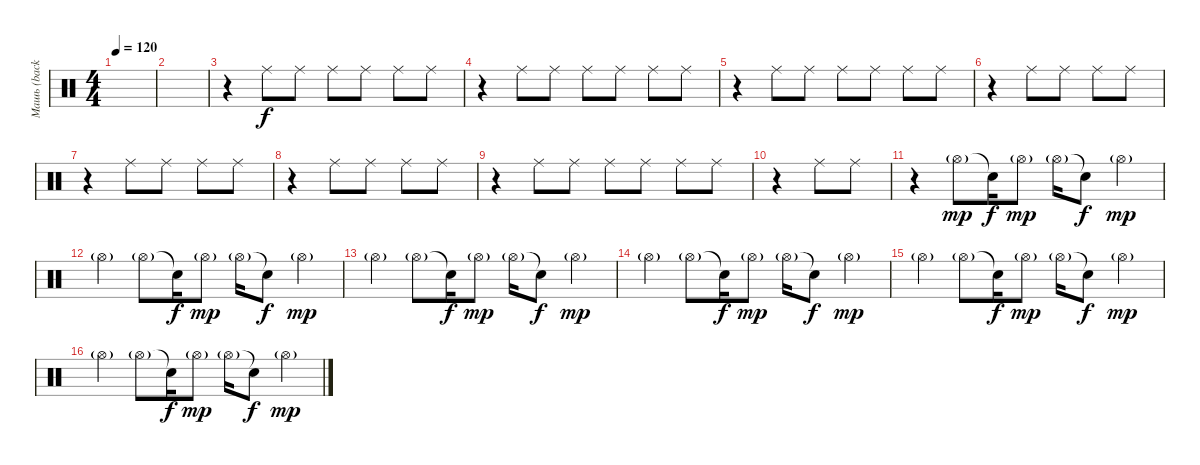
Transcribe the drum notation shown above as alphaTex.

\track ("Машь (backpercussion)" "Машь (back") {instrument percussion}
\staff {score}
\articulation defaults
\ts (4 4)
\tempo 120
\clef neutral
\ks c
|
|
r.4 "Ride (middle)".8{dy f} "Ride (middle)".8 "Ride (middle)".8 "Ride (middle)".8 "Ride (middle)".8 "Ride (middle)".8 |
r.4 "Ride (middle)".8 "Ride (middle)".8 "Ride (middle)".8 "Ride (middle)".8 "Ride (middle)".8 "Ride (middle)".8 |
r.4 "Ride (middle)".8 "Ride (middle)".8 "Ride (middle)".8 "Ride (middle)".8 "Ride (middle)".8 "Ride (middle)".8 |
r.4 "Ride (middle)".8 "Ride (middle)".8 "Ride (middle)".8 "Ride (middle)".8 |
r.4 "Ride (middle)".8 "Ride (middle)".8 "Ride (middle)".8 "Ride (middle)".8 |
r.4 "Ride (middle)".8 "Ride (middle)".8 "Ride (middle)".8 "Ride (middle)".8 |
r.4 "Ride (middle)".8 "Ride (middle)".8 "Ride (middle)".8 "Ride (middle)".8 "Ride (middle)".8 "Ride (middle)".8 |
r.4 "Ride (middle)".8 "Ride (middle)".8 |
r.4 "Hi-Hat (open)"{g}.8{dy mp} "Snare (hit)"{t}.16{dy f} "Hi-Hat (open)"{g}.8{dy mp} "Hi-Hat (open)"{g}.16 "Snare (hit)"{t}.8{dy f} "Hi-Hat (open)"{g}.4{dy mp} |
"Hi-Hat (open)"{g}.4 "Hi-Hat (open)"{g}.8 "Snare (hit)"{t}.16{dy f} "Hi-Hat (open)"{g}.8{dy mp} "Hi-Hat (open)"{g}.16 "Snare (hit)"{t}.8{dy f} "Hi-Hat (open)"{g}.4{dy mp} |
"Hi-Hat (open)"{g}.4 "Hi-Hat (open)"{g}.8 "Snare (hit)"{t}.16{dy f} "Hi-Hat (open)"{g}.8{dy mp} "Hi-Hat (open)"{g}.16 "Snare (hit)"{t}.8{dy f} "Hi-Hat (open)"{g}.4{dy mp} |
"Hi-Hat (open)"{g}.4 "Hi-Hat (open)"{g}.8 "Snare (hit)"{t}.16{dy f} "Hi-Hat (open)"{g}.8{dy mp} "Hi-Hat (open)"{g}.16 "Snare (hit)"{t}.8{dy f} "Hi-Hat (open)"{g}.4{dy mp} |
"Hi-Hat (open)"{g}.4 "Hi-Hat (open)"{g}.8 "Snare (hit)"{t}.16{dy f} "Hi-Hat (open)"{g}.8{dy mp} "Hi-Hat (open)"{g}.16 "Snare (hit)"{t}.8{dy f} "Hi-Hat (open)"{g}.4{dy mp} |
"Hi-Hat (open)"{g}.4 "Hi-Hat (open)"{g}.8 "Snare (hit)"{t}.16{dy f} "Hi-Hat (open)"{g}.8{dy mp} "Hi-Hat (open)"{g}.16 "Snare (hit)"{t}.8{dy f} "Hi-Hat (open)"{g}.4{dy mp}
